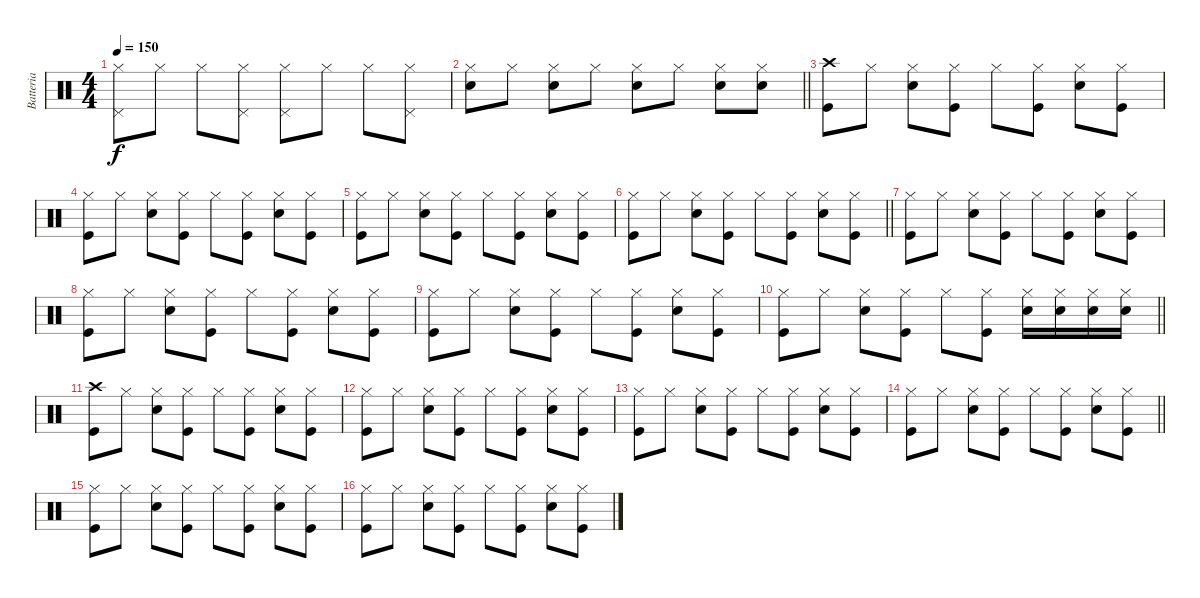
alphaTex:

\track ("Batteria" "Batteria") {instrument percussion}
\staff {score}
\articulation defaults
\ts (4 4)
\tempo 150
\clef neutral
\ks c
("Hi-Hat (closed)" "Pedal Hi-Hat (hit)").8{dy f} "Hi-Hat (closed)".8 "Hi-Hat (closed)".8 ("Pedal Hi-Hat (hit)" "Hi-Hat (closed)").8 ("Pedal Hi-Hat (hit)" "Hi-Hat (closed)").8 "Hi-Hat (closed)".8 "Hi-Hat (closed)".8 ("Hi-Hat (closed)" "Pedal Hi-Hat (hit)").8 |
\barLineRight lightlight
("Hi-Hat (closed)" "Snare (hit) 2").8 "Hi-Hat (closed)".8 ("Hi-Hat (closed)" "Snare (hit) 2").8 "Hi-Hat (closed)".8 ("Hi-Hat (closed)" "Snare (hit) 2").8 "Hi-Hat (closed)".8 ("Hi-Hat (closed)" "Snare (hit) 2").8 ("Hi-Hat (closed)" "Snare (hit) 2").8 |
("Kick (hit)" "Crash high (hit)").8 "Hi-Hat (closed)".8 ("Snare (hit) 2" "Hi-Hat (closed)").8 ("Kick (hit)" "Hi-Hat (closed)").8 "Hi-Hat (closed)".8 ("Kick (hit)" "Hi-Hat (closed)").8 ("Snare (hit) 2" "Hi-Hat (closed)").8 ("Kick (hit)" "Hi-Hat (closed)").8 |
("Kick (hit)" "Hi-Hat (closed)").8 "Hi-Hat (closed)".8 ("Snare (hit) 2" "Hi-Hat (closed)").8 ("Kick (hit)" "Hi-Hat (closed)").8 "Hi-Hat (closed)".8 ("Kick (hit)" "Hi-Hat (closed)").8 ("Snare (hit) 2" "Hi-Hat (closed)").8 ("Kick (hit)" "Hi-Hat (closed)").8 |
("Kick (hit)" "Hi-Hat (closed)").8 "Hi-Hat (closed)".8 ("Snare (hit) 2" "Hi-Hat (closed)").8 ("Kick (hit)" "Hi-Hat (closed)").8 "Hi-Hat (closed)".8 ("Kick (hit)" "Hi-Hat (closed)").8 ("Snare (hit) 2" "Hi-Hat (closed)").8 ("Kick (hit)" "Hi-Hat (closed)").8 |
\barLineRight lightlight
("Kick (hit)" "Hi-Hat (closed)").8 "Hi-Hat (closed)".8 ("Snare (hit) 2" "Hi-Hat (closed)").8 ("Kick (hit)" "Hi-Hat (closed)").8 "Hi-Hat (closed)".8 ("Kick (hit)" "Hi-Hat (closed)").8 ("Snare (hit) 2" "Hi-Hat (closed)").8 ("Kick (hit)" "Hi-Hat (closed)").8 |
("Kick (hit)" "Hi-Hat (closed)").8 "Hi-Hat (closed)".8 ("Snare (hit) 2" "Hi-Hat (closed)").8 ("Kick (hit)" "Hi-Hat (closed)").8 "Hi-Hat (closed)".8 ("Kick (hit)" "Hi-Hat (closed)").8 ("Snare (hit) 2" "Hi-Hat (closed)").8 ("Kick (hit)" "Hi-Hat (closed)").8 |
("Kick (hit)" "Hi-Hat (closed)").8 "Hi-Hat (closed)".8 ("Snare (hit) 2" "Hi-Hat (closed)").8 ("Kick (hit)" "Hi-Hat (closed)").8 "Hi-Hat (closed)".8 ("Kick (hit)" "Hi-Hat (closed)").8 ("Snare (hit) 2" "Hi-Hat (closed)").8 ("Kick (hit)" "Hi-Hat (closed)").8 |
("Kick (hit)" "Hi-Hat (closed)").8 "Hi-Hat (closed)".8 ("Snare (hit) 2" "Hi-Hat (closed)").8 ("Kick (hit)" "Hi-Hat (closed)").8 "Hi-Hat (closed)".8 ("Kick (hit)" "Hi-Hat (closed)").8 ("Snare (hit) 2" "Hi-Hat (closed)").8 ("Kick (hit)" "Hi-Hat (closed)").8 |
\barLineRight lightlight
("Kick (hit)" "Hi-Hat (closed)").8 "Hi-Hat (closed)".8 ("Snare (hit) 2" "Hi-Hat (closed)").8 ("Kick (hit)" "Hi-Hat (closed)").8 "Hi-Hat (closed)".8 ("Kick (hit)" "Hi-Hat (closed)").8 ("Snare (hit) 2" "Hi-Hat (closed)").16 ("Snare (hit) 2" "Hi-Hat (closed)").16 ("Snare (hit) 2" "Hi-Hat (closed)").16 ("Snare (hit) 2" "Hi-Hat (closed)").16 |
("Kick (hit)" "Crash high (hit)").8 "Hi-Hat (closed)".8 ("Snare (hit) 2" "Hi-Hat (closed)").8 ("Kick (hit)" "Hi-Hat (closed)").8 "Hi-Hat (closed)".8 ("Kick (hit)" "Hi-Hat (closed)").8 ("Snare (hit) 2" "Hi-Hat (closed)").8 ("Kick (hit)" "Hi-Hat (closed)").8 |
("Kick (hit)" "Hi-Hat (closed)").8 "Hi-Hat (closed)".8 ("Snare (hit) 2" "Hi-Hat (closed)").8 ("Kick (hit)" "Hi-Hat (closed)").8 "Hi-Hat (closed)".8 ("Kick (hit)" "Hi-Hat (closed)").8 ("Snare (hit) 2" "Hi-Hat (closed)").8 ("Kick (hit)" "Hi-Hat (closed)").8 |
("Kick (hit)" "Hi-Hat (closed)").8 "Hi-Hat (closed)".8 ("Snare (hit) 2" "Hi-Hat (closed)").8 ("Kick (hit)" "Hi-Hat (closed)").8 "Hi-Hat (closed)".8 ("Kick (hit)" "Hi-Hat (closed)").8 ("Snare (hit) 2" "Hi-Hat (closed)").8 ("Kick (hit)" "Hi-Hat (closed)").8 |
\barLineRight lightlight
("Kick (hit)" "Hi-Hat (closed)").8 "Hi-Hat (closed)".8 ("Snare (hit) 2" "Hi-Hat (closed)").8 ("Kick (hit)" "Hi-Hat (closed)").8 "Hi-Hat (closed)".8 ("Kick (hit)" "Hi-Hat (closed)").8 ("Snare (hit) 2" "Hi-Hat (closed)").8 ("Kick (hit)" "Hi-Hat (closed)").8 |
("Kick (hit)" "Hi-Hat (closed)").8 "Hi-Hat (closed)".8 ("Snare (hit) 2" "Hi-Hat (closed)").8 ("Kick (hit)" "Hi-Hat (closed)").8 "Hi-Hat (closed)".8 ("Kick (hit)" "Hi-Hat (closed)").8 ("Snare (hit) 2" "Hi-Hat (closed)").8 ("Kick (hit)" "Hi-Hat (closed)").8 |
("Kick (hit)" "Hi-Hat (closed)").8 "Hi-Hat (closed)".8 ("Snare (hit) 2" "Hi-Hat (closed)").8 ("Kick (hit)" "Hi-Hat (closed)").8 "Hi-Hat (closed)".8 ("Kick (hit)" "Hi-Hat (closed)").8 ("Snare (hit) 2" "Hi-Hat (closed)").8 ("Kick (hit)" "Hi-Hat (closed)").8
